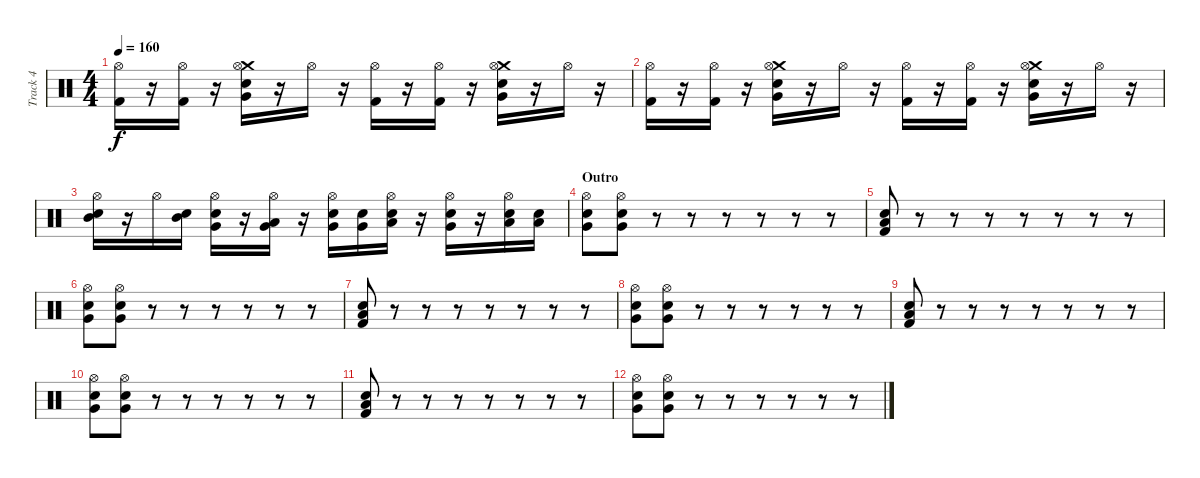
\track ("Track 4" "Track 4") {instrument percussion}
\staff {score}
\articulation defaults
\ts (4 4)
\tempo 160
\clef neutral
\ks c
("Kick (hit) 2" "Hi-Hat (open)").16{dy f} r.16 ("Kick (hit) 2" "Hi-Hat (open)").16 r.16 ("Very Low Tom (hit)" "Electric Snare (hit)" "Crash medium (hit)" "Hi-Hat (open)").16 r.16 "Hi-Hat (open)".16 r.16 ("Kick (hit) 2" "Hi-Hat (open)").16 r.16 ("Kick (hit) 2" "Hi-Hat (open)").16 r.16 ("Very Low Tom (hit)" "Electric Snare (hit)" "Crash medium (hit)" "Hi-Hat (open)").16 r.16 "Hi-Hat (open)".16 r.16 |
("Kick (hit) 2" "Hi-Hat (open)").16 r.16 ("Kick (hit) 2" "Hi-Hat (open)").16 r.16 ("Very Low Tom (hit)" "Electric Snare (hit)" "Crash medium (hit)" "Hi-Hat (open)").16 r.16 "Hi-Hat (open)".16 r.16 ("Kick (hit) 2" "Hi-Hat (open)").16 r.16 ("Kick (hit) 2" "Hi-Hat (open)").16 r.16 ("Very Low Tom (hit)" "Electric Snare (hit)" "Crash medium (hit)" "Hi-Hat (open)").16 r.16 "Hi-Hat (open)".16 r.16 |
("Electric Snare (hit)" "Hi-Hat (open)" "Mid Tom (hit)").16 r.16 "Hi-Hat (open)".16 ("Electric Snare (hit)" "Mid Tom (hit)").16 ("Very Low Tom (hit)" "Electric Snare (hit)" "Hi-Hat (open)").16 r.16 ("Very Low Tom (hit)" "Hi-Hat (open)" "Low Floor Tom (hit)").16 r.16 ("Very Low Tom (hit)" "Hi-Hat (open)" "Electric Snare (hit)").16 ("Electric Snare (hit)" "Very Low Tom (hit)").16 ("Low Floor Tom (hit)" "Hi-Hat (open)" "Electric Snare (hit)").16 r.16 ("Very Low Tom (hit)" "Electric Snare (hit)" "Hi-Hat (open)").16 r.16 ("Low Floor Tom (hit)" "Hi-Hat (open)" "Electric Snare (hit)").16 ("Low Floor Tom (hit)" "Electric Snare (hit)").16 |
\section ("" "Outro")
("Very Low Tom (hit)" "Snare (hit) 2" "Hi-Hat (open)").8 ("Very Low Tom (hit)" "Snare (hit) 2" "Hi-Hat (open)").8 r.8 r.8 r.8 r.8 r.8 r.8 |
("Kick (hit) 2" "Low Tom (hit)" "Snare (hit) 2").8 r.8 r.8 r.8 r.8 r.8 r.8 r.8 |
("Very Low Tom (hit)" "Snare (hit) 2" "Hi-Hat (open)").8 ("Very Low Tom (hit)" "Snare (hit) 2" "Hi-Hat (open)").8 r.8 r.8 r.8 r.8 r.8 r.8 |
("Kick (hit) 2" "Low Tom (hit)" "Snare (hit) 2").8 r.8 r.8 r.8 r.8 r.8 r.8 r.8 |
("Very Low Tom (hit)" "Snare (hit) 2" "Hi-Hat (open)").8 ("Very Low Tom (hit)" "Snare (hit) 2" "Hi-Hat (open)").8 r.8 r.8 r.8 r.8 r.8 r.8 |
("Kick (hit) 2" "Low Tom (hit)" "Snare (hit) 2").8 r.8 r.8 r.8 r.8 r.8 r.8 r.8 |
("Very Low Tom (hit)" "Snare (hit) 2" "Hi-Hat (open)").8 ("Very Low Tom (hit)" "Snare (hit) 2" "Hi-Hat (open)").8 r.8 r.8 r.8 r.8 r.8 r.8 |
("Kick (hit) 2" "Low Tom (hit)" "Snare (hit) 2").8 r.8 r.8 r.8 r.8 r.8 r.8 r.8 |
("Very Low Tom (hit)" "Snare (hit) 2" "Hi-Hat (open)").8 ("Very Low Tom (hit)" "Snare (hit) 2" "Hi-Hat (open)").8 r.8 r.8 r.8 r.8 r.8 r.8
